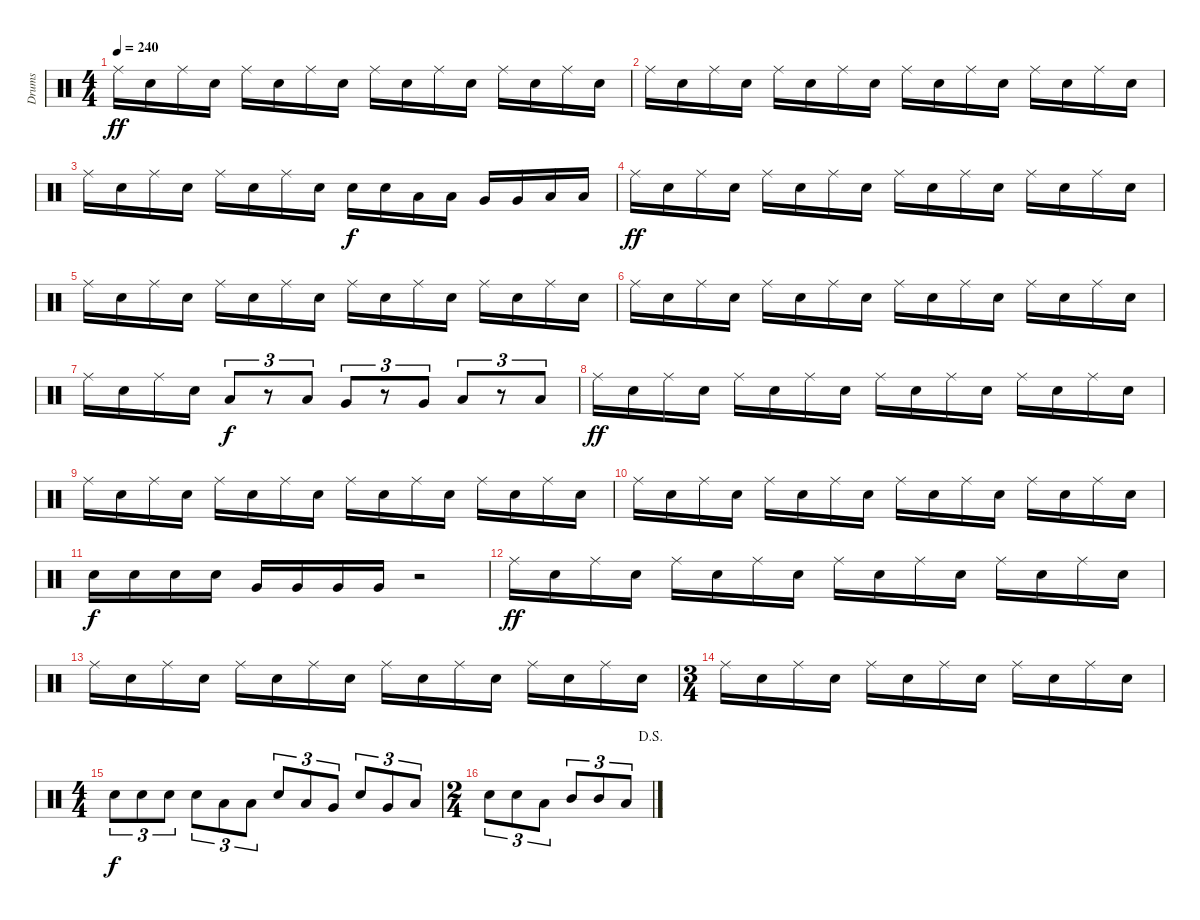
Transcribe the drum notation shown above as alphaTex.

\track ("Drums" "Drums") {instrument percussion}
\staff {score}
\articulation defaults
\ts (4 4)
\tempo 240
\clef neutral
\ks c "Ride (middle)".16{dy ff} "Electric Snare (hit)".16 "Ride (middle)".16 "Electric Snare (hit)".16 "Ride (middle)".16 "Electric Snare (hit)".16 "Ride (middle)".16 "Electric Snare (hit)".16 "Ride (middle)".16 "Electric Snare (hit)".16 "Ride (middle)".16 "Electric Snare (hit)".16 "Ride (middle)".16 "Electric Snare (hit)".16 "Ride (middle)".16 "Electric Snare (hit)".16
|
"Ride (middle)".16 "Electric Snare (hit)".16 "Ride (middle)".16 "Electric Snare (hit)".16 "Ride (middle)".16 "Electric Snare (hit)".16 "Ride (middle)".16 "Electric Snare (hit)".16 "Ride (middle)".16 "Electric Snare (hit)".16 "Ride (middle)".16 "Electric Snare (hit)".16 "Ride (middle)".16 "Electric Snare (hit)".16 "Ride (middle)".16 "Electric Snare (hit)".16 |
"Ride (middle)".16 "Electric Snare (hit)".16 "Ride (middle)".16 "Electric Snare (hit)".16 "Ride (middle)".16 "Electric Snare (hit)".16 "Ride (middle)".16 "Electric Snare (hit)".16 "Electric Snare (hit)".16{dy f} "Electric Snare (hit)".16 "Low Tom (hit)".16 "Low Tom (hit)".16 "Very Low Tom (hit)".16 "Very Low Tom (hit)".16 "Low Floor Tom (hit)".16 "Low Floor Tom (hit)".16 |
"Ride (middle)".16{dy ff} "Electric Snare (hit)".16 "Ride (middle)".16 "Electric Snare (hit)".16 "Ride (middle)".16 "Electric Snare (hit)".16 "Ride (middle)".16 "Electric Snare (hit)".16 "Ride (middle)".16 "Electric Snare (hit)".16 "Ride (middle)".16 "Electric Snare (hit)".16 "Ride (middle)".16 "Electric Snare (hit)".16 "Ride (middle)".16 "Electric Snare (hit)".16 |
"Ride (middle)".16 "Electric Snare (hit)".16 "Ride (middle)".16 "Electric Snare (hit)".16 "Ride (middle)".16 "Electric Snare (hit)".16 "Ride (middle)".16 "Electric Snare (hit)".16 "Ride (middle)".16 "Electric Snare (hit)".16 "Ride (middle)".16 "Electric Snare (hit)".16 "Ride (middle)".16 "Electric Snare (hit)".16 "Ride (middle)".16 "Electric Snare (hit)".16 |
"Ride (middle)".16 "Electric Snare (hit)".16 "Ride (middle)".16 "Electric Snare (hit)".16 "Ride (middle)".16 "Electric Snare (hit)".16 "Ride (middle)".16 "Electric Snare (hit)".16 "Ride (middle)".16 "Electric Snare (hit)".16 "Ride (middle)".16 "Electric Snare (hit)".16 "Ride (middle)".16 "Electric Snare (hit)".16 "Ride (middle)".16 "Electric Snare (hit)".16 |
"Ride (middle)".16 "Electric Snare (hit)".16 "Ride (middle)".16 "Electric Snare (hit)".16 "Low Tom (hit)".8{tu (3 2) dy f} r.8{tu (3 2)} "Low Tom (hit)".8{tu (3 2)} "Very Low Tom (hit)".8{tu (3 2)} r.8{tu (3 2)} "Very Low Tom (hit)".8{tu (3 2)} "Low Floor Tom (hit)".8{tu (3 2)} r.8{tu (3 2)} "Low Floor Tom (hit)".8{tu (3 2)} |
"Ride (middle)".16{dy ff} "Electric Snare (hit)".16 "Ride (middle)".16 "Electric Snare (hit)".16 "Ride (middle)".16 "Electric Snare (hit)".16 "Ride (middle)".16 "Electric Snare (hit)".16 "Ride (middle)".16 "Electric Snare (hit)".16 "Ride (middle)".16 "Electric Snare (hit)".16 "Ride (middle)".16 "Electric Snare (hit)".16 "Ride (middle)".16 "Electric Snare (hit)".16 |
"Ride (middle)".16 "Electric Snare (hit)".16 "Ride (middle)".16 "Electric Snare (hit)".16 "Ride (middle)".16 "Electric Snare (hit)".16 "Ride (middle)".16 "Electric Snare (hit)".16 "Ride (middle)".16 "Electric Snare (hit)".16 "Ride (middle)".16 "Electric Snare (hit)".16 "Ride (middle)".16 "Electric Snare (hit)".16 "Ride (middle)".16 "Electric Snare (hit)".16 |
"Ride (middle)".16 "Electric Snare (hit)".16 "Ride (middle)".16 "Electric Snare (hit)".16 "Ride (middle)".16 "Electric Snare (hit)".16 "Ride (middle)".16 "Electric Snare (hit)".16 "Ride (middle)".16 "Electric Snare (hit)".16 "Ride (middle)".16 "Electric Snare (hit)".16 "Ride (middle)".16 "Electric Snare (hit)".16 "Ride (middle)".16 "Electric Snare (hit)".16 |
"Electric Snare (hit)".16{dy f} "Electric Snare (hit)".16 "Electric Snare (hit)".16 "Electric Snare (hit)".16 "Very Low Tom (hit)".16 "Very Low Tom (hit)".16 "Very Low Tom (hit)".16 "Very Low Tom (hit)".16 r.2 |
"Ride (middle)".16{dy ff} "Electric Snare (hit)".16 "Ride (middle)".16 "Electric Snare (hit)".16 "Ride (middle)".16 "Electric Snare (hit)".16 "Ride (middle)".16 "Electric Snare (hit)".16 "Ride (middle)".16 "Electric Snare (hit)".16 "Ride (middle)".16 "Electric Snare (hit)".16 "Ride (middle)".16 "Electric Snare (hit)".16 "Ride (middle)".16 "Electric Snare (hit)".16 |
"Ride (middle)".16 "Electric Snare (hit)".16 "Ride (middle)".16 "Electric Snare (hit)".16 "Ride (middle)".16 "Electric Snare (hit)".16 "Ride (middle)".16 "Electric Snare (hit)".16 "Ride (middle)".16 "Electric Snare (hit)".16 "Ride (middle)".16 "Electric Snare (hit)".16 "Ride (middle)".16 "Electric Snare (hit)".16 "Ride (middle)".16 "Electric Snare (hit)".16 |
\ts (3 4)
"Ride (middle)".16 "Electric Snare (hit)".16 "Ride (middle)".16 "Electric Snare (hit)".16 "Ride (middle)".16 "Electric Snare (hit)".16 "Ride (middle)".16 "Electric Snare (hit)".16 "Ride (middle)".16 "Electric Snare (hit)".16 "Ride (middle)".16 "Electric Snare (hit)".16 |
\ts (4 4)
"Electric Snare (hit)".8{tu (3 2) dy f} "Electric Snare (hit)".8{tu (3 2)} "Electric Snare (hit)".8{tu (3 2)} "Electric Snare (hit)".8{tu (3 2)} "Low Tom (hit)".8{tu (3 2)} "Low Tom (hit)".8{tu (3 2)} "Electric Snare (hit)".8{tu (3 2)} "Low Tom (hit)".8{tu (3 2)} "Very Low Tom (hit)".8{tu (3 2)} "Electric Snare (hit)".8{tu (3 2)} "Very Low Tom (hit)".8{tu (3 2)} "Low Floor Tom (hit)".8{tu (3 2)} |
\ts (2 4)
\jump dalsegno "Electric Snare (hit)".8{tu (3 2)} "Electric Snare (hit)".8{tu (3 2)} "Low Tom (hit)".8{tu (3 2)} "Mid Tom (hit)".8{tu (3 2)} "Mid Tom (hit)".8{tu (3 2)} "Low Tom (hit)".8{tu (3 2)}
